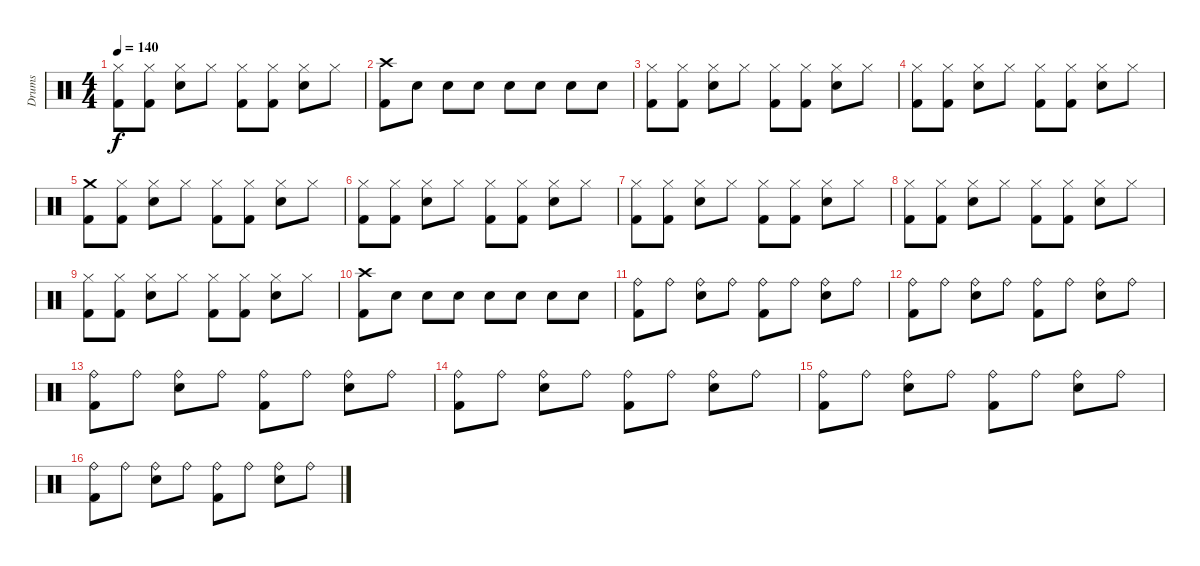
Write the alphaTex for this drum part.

\track ("Drums" "Drums") {instrument percussion}
\staff {score}
\articulation defaults
\ts (4 4)
\tempo 140
\clef neutral
\ks c
("Hi-Hat (closed)" "Kick (hit) 2").8{dy f} ("Hi-Hat (closed)" "Kick (hit) 2").8 ("Hi-Hat (closed)" "Electric Snare (hit)").8 "Hi-Hat (closed)".8 ("Hi-Hat (closed)" "Kick (hit) 2").8 ("Hi-Hat (closed)" "Kick (hit) 2").8 ("Hi-Hat (closed)" "Electric Snare (hit)").8 "Hi-Hat (closed)".8 |
("Crash high (hit)" "Kick (hit) 2").8 "Electric Snare (hit)".8 "Electric Snare (hit)".8 "Electric Snare (hit)".8 "Electric Snare (hit)".8 "Electric Snare (hit)".8 "Electric Snare (hit)".8 "Electric Snare (hit)".8 |
("Hi-Hat (closed)" "Kick (hit) 2").8 ("Hi-Hat (closed)" "Kick (hit) 2").8 ("Hi-Hat (closed)" "Electric Snare (hit)").8 "Hi-Hat (closed)".8 ("Hi-Hat (closed)" "Kick (hit) 2").8 ("Hi-Hat (closed)" "Kick (hit) 2").8 ("Hi-Hat (closed)" "Electric Snare (hit)").8 "Hi-Hat (closed)".8 |
("Hi-Hat (closed)" "Kick (hit) 2").8 ("Hi-Hat (closed)" "Kick (hit) 2").8 ("Hi-Hat (closed)" "Electric Snare (hit)").8 "Hi-Hat (closed)".8 ("Hi-Hat (closed)" "Kick (hit) 2").8 ("Hi-Hat (closed)" "Kick (hit) 2").8 ("Hi-Hat (closed)" "Electric Snare (hit)").8 "Hi-Hat (closed)".8 |
("Crash medium (hit)" "Kick (hit) 2").8 ("Hi-Hat (closed)" "Kick (hit) 2").8 ("Hi-Hat (closed)" "Electric Snare (hit)").8 "Hi-Hat (closed)".8 ("Hi-Hat (closed)" "Kick (hit) 2").8 ("Hi-Hat (closed)" "Kick (hit) 2").8 ("Hi-Hat (closed)" "Electric Snare (hit)").8 "Hi-Hat (closed)".8 |
("Hi-Hat (closed)" "Kick (hit) 2").8 ("Hi-Hat (closed)" "Kick (hit) 2").8 ("Hi-Hat (closed)" "Electric Snare (hit)").8 "Hi-Hat (closed)".8 ("Hi-Hat (closed)" "Kick (hit) 2").8 ("Hi-Hat (closed)" "Kick (hit) 2").8 ("Hi-Hat (closed)" "Electric Snare (hit)").8 "Hi-Hat (closed)".8 |
("Hi-Hat (closed)" "Kick (hit) 2").8 ("Hi-Hat (closed)" "Kick (hit) 2").8 ("Hi-Hat (closed)" "Electric Snare (hit)").8 "Hi-Hat (closed)".8 ("Hi-Hat (closed)" "Kick (hit) 2").8 ("Hi-Hat (closed)" "Kick (hit) 2").8 ("Hi-Hat (closed)" "Electric Snare (hit)").8 "Hi-Hat (closed)".8 |
("Hi-Hat (closed)" "Kick (hit) 2").8 ("Hi-Hat (closed)" "Kick (hit) 2").8 ("Hi-Hat (closed)" "Electric Snare (hit)").8 "Hi-Hat (closed)".8 ("Hi-Hat (closed)" "Kick (hit) 2").8 ("Hi-Hat (closed)" "Kick (hit) 2").8 ("Hi-Hat (closed)" "Electric Snare (hit)").8 "Hi-Hat (closed)".8 |
("Hi-Hat (closed)" "Kick (hit) 2").8 ("Hi-Hat (closed)" "Kick (hit) 2").8 ("Hi-Hat (closed)" "Electric Snare (hit)").8 "Hi-Hat (closed)".8 ("Hi-Hat (closed)" "Kick (hit) 2").8 ("Hi-Hat (closed)" "Kick (hit) 2").8 ("Hi-Hat (closed)" "Electric Snare (hit)").8 "Hi-Hat (closed)".8 |
("Crash high (hit)" "Kick (hit) 2").8 "Electric Snare (hit)".8 "Electric Snare (hit)".8 "Electric Snare (hit)".8 "Electric Snare (hit)".8 "Electric Snare (hit)".8 "Electric Snare (hit)".8 "Electric Snare (hit)".8 |
("Ride (bell)" "Kick (hit) 2").8 "Ride (bell)".8 ("Ride (bell)" "Electric Snare (hit)").8 "Ride (bell)".8 ("Ride (bell)" "Kick (hit) 2").8 "Ride (bell)".8 ("Ride (bell)" "Electric Snare (hit)").8 "Ride (bell)".8 |
("Ride (bell)" "Kick (hit) 2").8 "Ride (bell)".8 ("Ride (bell)" "Electric Snare (hit)").8 "Ride (bell)".8 ("Ride (bell)" "Kick (hit) 2").8 "Ride (bell)".8 ("Ride (bell)" "Electric Snare (hit)").8 "Ride (bell)".8 |
("Ride (bell)" "Kick (hit) 2").8 "Ride (bell)".8 ("Ride (bell)" "Electric Snare (hit)").8 "Ride (bell)".8 ("Ride (bell)" "Kick (hit) 2").8 "Ride (bell)".8 ("Ride (bell)" "Electric Snare (hit)").8 "Ride (bell)".8 |
("Ride (bell)" "Kick (hit) 2").8 "Ride (bell)".8 ("Ride (bell)" "Electric Snare (hit)").8 "Ride (bell)".8 ("Ride (bell)" "Kick (hit) 2").8 "Ride (bell)".8 ("Ride (bell)" "Electric Snare (hit)").8 "Ride (bell)".8 |
("Ride (bell)" "Kick (hit) 2").8 "Ride (bell)".8 ("Ride (bell)" "Electric Snare (hit)").8 "Ride (bell)".8 ("Ride (bell)" "Kick (hit) 2").8 "Ride (bell)".8 ("Ride (bell)" "Electric Snare (hit)").8 "Ride (bell)".8 |
("Ride (bell)" "Kick (hit) 2").8 "Ride (bell)".8 ("Ride (bell)" "Electric Snare (hit)").8 "Ride (bell)".8 ("Ride (bell)" "Kick (hit) 2").8 "Ride (bell)".8 ("Ride (bell)" "Electric Snare (hit)").8 "Ride (bell)".8
